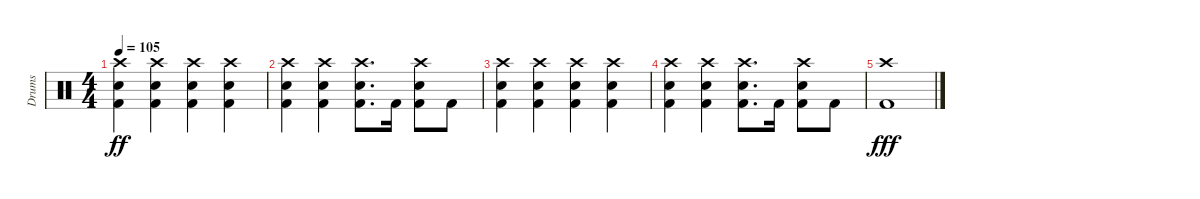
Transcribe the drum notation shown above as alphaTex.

\track ("Drums" "Drums") {instrument percussion}
\staff {score}
\articulation defaults
\ts (4 4)
\tempo 105
\clef neutral
\ks c
("Crash high (hit)" "Snare (hit) 2" "Kick (hit) 2").4{dy ff} ("Crash high (hit)" "Snare (hit) 2" "Kick (hit) 2").4 ("Crash high (hit)" "Snare (hit) 2" "Kick (hit) 2").4 ("Crash high (hit)" "Snare (hit) 2" "Kick (hit) 2").4 |
("Crash high (hit)" "Snare (hit) 2" "Kick (hit) 2").4 ("Crash high (hit)" "Snare (hit) 2" "Kick (hit) 2").4 ("Crash high (hit)" "Snare (hit) 2" "Kick (hit) 2").8{d} "Kick (hit) 2".16 ("Crash high (hit)" "Snare (hit) 2" "Kick (hit) 2").8 "Kick (hit) 2".8 |
("Crash high (hit)" "Snare (hit) 2" "Kick (hit) 2").4 ("Crash high (hit)" "Snare (hit) 2" "Kick (hit) 2").4 ("Crash high (hit)" "Snare (hit) 2" "Kick (hit) 2").4 ("Crash high (hit)" "Snare (hit) 2" "Kick (hit) 2").4 |
("Crash high (hit)" "Snare (hit) 2" "Kick (hit) 2").4 ("Crash high (hit)" "Snare (hit) 2" "Kick (hit) 2").4 ("Crash high (hit)" "Snare (hit) 2" "Kick (hit) 2").8{d} "Kick (hit) 2".16 ("Crash high (hit)" "Snare (hit) 2" "Kick (hit) 2").8 "Kick (hit) 2".8 |
("Crash high (hit)" "Kick (hit) 2").1{dy fff}
